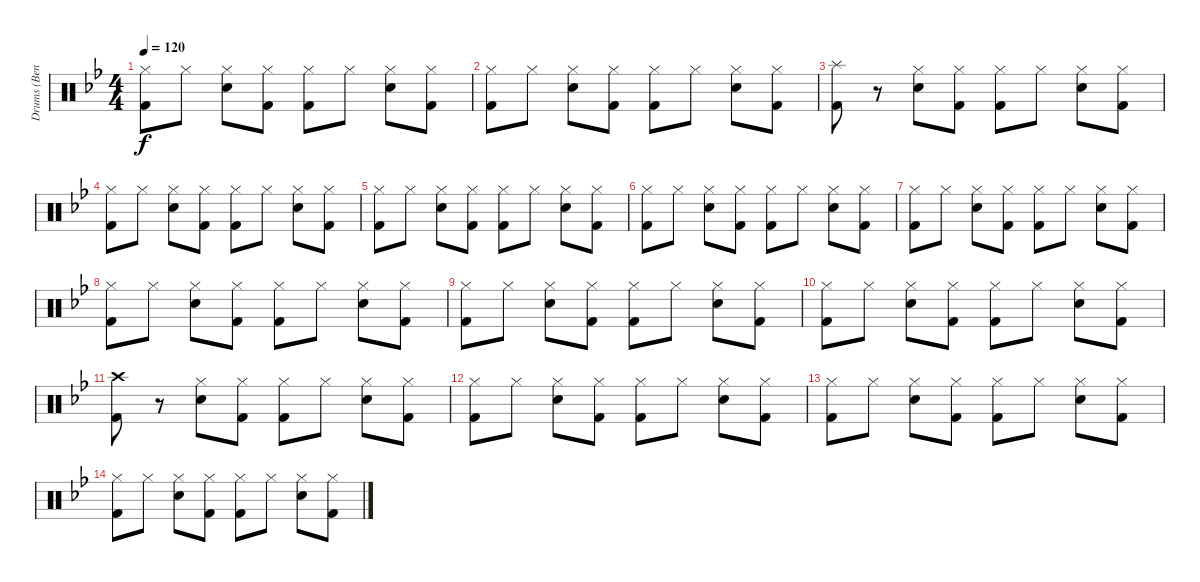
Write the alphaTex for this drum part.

\track ("Drums (Bengerg)" "Drums (Ben") {instrument percussion}
\staff {score}
\articulation defaults
\ts (4 4)
\tempo 120
\clef neutral
\ks bb
("Hi-Hat (closed)" "Kick (hit) 2").8{dy f} "Hi-Hat (closed)".8 ("Hi-Hat (closed)" "Electric Snare (hit)").8 ("Hi-Hat (closed)" "Kick (hit) 2").8 ("Hi-Hat (closed)" "Kick (hit) 2").8 "Hi-Hat (closed)".8 ("Hi-Hat (closed)" "Electric Snare (hit)").8 ("Hi-Hat (closed)" "Kick (hit) 2").8 |
("Hi-Hat (closed)" "Kick (hit) 2").8 "Hi-Hat (closed)".8 ("Hi-Hat (closed)" "Electric Snare (hit)").8 ("Hi-Hat (closed)" "Kick (hit) 2").8 ("Hi-Hat (closed)" "Kick (hit) 2").8 "Hi-Hat (closed)".8 ("Hi-Hat (closed)" "Electric Snare (hit)").8 ("Hi-Hat (closed)" "Kick (hit) 2").8 |
("Splash (hit)" "Kick (hit) 2").8 r.8 ("Hi-Hat (closed)" "Electric Snare (hit)").8 ("Hi-Hat (closed)" "Kick (hit) 2").8 ("Hi-Hat (closed)" "Kick (hit) 2").8 "Hi-Hat (closed)".8 ("Hi-Hat (closed)" "Electric Snare (hit)").8 ("Hi-Hat (closed)" "Kick (hit) 2").8 |
("Hi-Hat (closed)" "Kick (hit) 2").8 "Hi-Hat (closed)".8 ("Hi-Hat (closed)" "Electric Snare (hit)").8 ("Hi-Hat (closed)" "Kick (hit) 2").8 ("Hi-Hat (closed)" "Kick (hit) 2").8 "Hi-Hat (closed)".8 ("Hi-Hat (closed)" "Electric Snare (hit)").8 ("Hi-Hat (closed)" "Kick (hit) 2").8 |
("Hi-Hat (closed)" "Kick (hit) 2").8 "Hi-Hat (closed)".8 ("Hi-Hat (closed)" "Electric Snare (hit)").8 ("Hi-Hat (closed)" "Kick (hit) 2").8 ("Hi-Hat (closed)" "Kick (hit) 2").8 "Hi-Hat (closed)".8 ("Hi-Hat (closed)" "Electric Snare (hit)").8 ("Hi-Hat (closed)" "Kick (hit) 2").8 |
("Hi-Hat (closed)" "Kick (hit) 2").8 "Hi-Hat (closed)".8 ("Hi-Hat (closed)" "Electric Snare (hit)").8 ("Hi-Hat (closed)" "Kick (hit) 2").8 ("Hi-Hat (closed)" "Kick (hit) 2").8 "Hi-Hat (closed)".8 ("Hi-Hat (closed)" "Electric Snare (hit)").8 ("Hi-Hat (closed)" "Kick (hit) 2").8 |
("Hi-Hat (closed)" "Kick (hit) 2").8 "Hi-Hat (closed)".8 ("Hi-Hat (closed)" "Electric Snare (hit)").8 ("Hi-Hat (closed)" "Kick (hit) 2").8 ("Hi-Hat (closed)" "Kick (hit) 2").8 "Hi-Hat (closed)".8 ("Hi-Hat (closed)" "Electric Snare (hit)").8 ("Hi-Hat (closed)" "Kick (hit) 2").8 |
("Hi-Hat (closed)" "Kick (hit) 2").8 "Hi-Hat (closed)".8 ("Hi-Hat (closed)" "Electric Snare (hit)").8 ("Hi-Hat (closed)" "Kick (hit) 2").8 ("Hi-Hat (closed)" "Kick (hit) 2").8 "Hi-Hat (closed)".8 ("Hi-Hat (closed)" "Electric Snare (hit)").8 ("Hi-Hat (closed)" "Kick (hit) 2").8 |
("Hi-Hat (closed)" "Kick (hit) 2").8 "Hi-Hat (closed)".8 ("Hi-Hat (closed)" "Electric Snare (hit)").8 ("Hi-Hat (closed)" "Kick (hit) 2").8 ("Hi-Hat (closed)" "Kick (hit) 2").8 "Hi-Hat (closed)".8 ("Hi-Hat (closed)" "Electric Snare (hit)").8 ("Hi-Hat (closed)" "Kick (hit) 2").8 |
("Hi-Hat (closed)" "Kick (hit) 2").8 "Hi-Hat (closed)".8 ("Hi-Hat (closed)" "Electric Snare (hit)").8 ("Hi-Hat (closed)" "Kick (hit) 2").8 ("Hi-Hat (closed)" "Kick (hit) 2").8 "Hi-Hat (closed)".8 ("Hi-Hat (closed)" "Electric Snare (hit)").8 ("Hi-Hat (closed)" "Kick (hit) 2").8 |
("Crash high (hit)" "Kick (hit) 2").8{volume 0} r.8 ("Hi-Hat (closed)" "Electric Snare (hit)").8 ("Hi-Hat (closed)" "Kick (hit) 2").8 ("Hi-Hat (closed)" "Kick (hit) 2").8 "Hi-Hat (closed)".8 ("Hi-Hat (closed)" "Electric Snare (hit)").8 ("Hi-Hat (closed)" "Kick (hit) 2").8 |
("Hi-Hat (closed)" "Kick (hit) 2").8 "Hi-Hat (closed)".8 ("Hi-Hat (closed)" "Electric Snare (hit)").8 ("Hi-Hat (closed)" "Kick (hit) 2").8 ("Hi-Hat (closed)" "Kick (hit) 2").8 "Hi-Hat (closed)".8 ("Hi-Hat (closed)" "Electric Snare (hit)").8 ("Hi-Hat (closed)" "Kick (hit) 2").8 |
("Hi-Hat (closed)" "Kick (hit) 2").8 "Hi-Hat (closed)".8 ("Hi-Hat (closed)" "Electric Snare (hit)").8 ("Hi-Hat (closed)" "Kick (hit) 2").8 ("Hi-Hat (closed)" "Kick (hit) 2").8 "Hi-Hat (closed)".8 ("Hi-Hat (closed)" "Electric Snare (hit)").8 ("Hi-Hat (closed)" "Kick (hit) 2").8 |
("Hi-Hat (closed)" "Kick (hit) 2").8 "Hi-Hat (closed)".8 ("Hi-Hat (closed)" "Electric Snare (hit)").8 ("Hi-Hat (closed)" "Kick (hit) 2").8 ("Hi-Hat (closed)" "Kick (hit) 2").8 "Hi-Hat (closed)".8 ("Hi-Hat (closed)" "Electric Snare (hit)").8 ("Hi-Hat (closed)" "Kick (hit) 2").8
